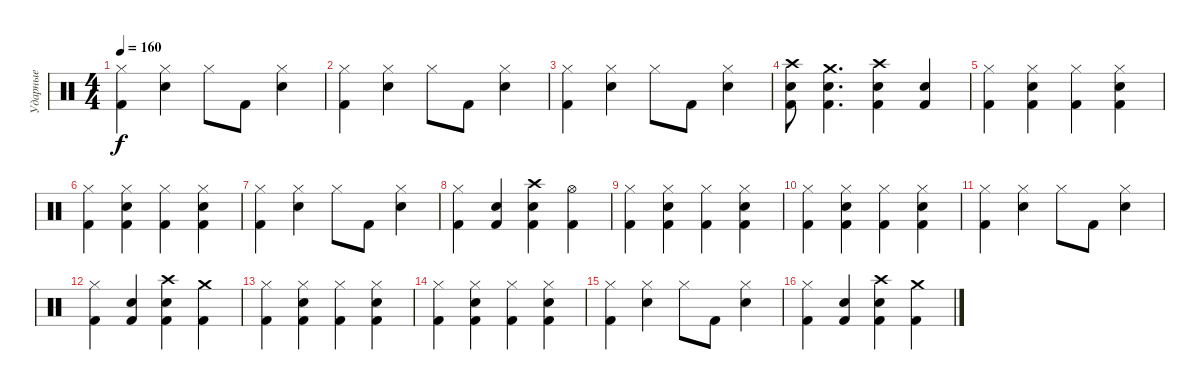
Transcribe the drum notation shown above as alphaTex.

\track ("Ударные" "Ударные") {instrument percussion}
\staff {score}
\articulation defaults
\ts (4 4)
\tempo 160
\clef neutral
\ks c
("Hi-Hat (closed)" "Kick (hit) 2").4{dy f} ("Hi-Hat (closed)" "Snare (hit) 2").4 "Hi-Hat (closed)".8 "Kick (hit) 2".8 ("Hi-Hat (closed)" "Snare (hit) 2").4 |
("Hi-Hat (closed)" "Kick (hit) 2").4 ("Hi-Hat (closed)" "Snare (hit) 2").4 "Hi-Hat (closed)".8 "Kick (hit) 2".8 ("Hi-Hat (closed)" "Snare (hit) 2").4 |
("Hi-Hat (closed)" "Kick (hit) 2").4 ("Hi-Hat (closed)" "Snare (hit) 2").4 "Hi-Hat (closed)".8 "Kick (hit) 2".8 ("Hi-Hat (closed)" "Snare (hit) 2").4 |
("Crash high (hit)" "Snare (hit) 2" "Kick (hit) 2").8 ("Crash medium (hit)" "Snare (hit) 2" "Kick (hit) 2").4{d} ("Crash high (hit)" "Snare (hit) 2" "Kick (hit) 2").4 ("Snare (hit) 2" "Kick (hit) 2").4 |
("Hi-Hat (closed)" "Kick (hit) 2").4 ("Hi-Hat (closed)" "Snare (hit) 2" "Kick (hit) 2").4 ("Hi-Hat (closed)" "Kick (hit) 2").4 ("Hi-Hat (closed)" "Snare (hit) 2" "Kick (hit) 2").4 |
("Hi-Hat (closed)" "Kick (hit) 2").4 ("Hi-Hat (closed)" "Snare (hit) 2" "Kick (hit) 2").4 ("Hi-Hat (closed)" "Kick (hit) 2").4 ("Hi-Hat (closed)" "Snare (hit) 2" "Kick (hit) 2").4 |
("Hi-Hat (closed)" "Kick (hit) 2").4 ("Hi-Hat (closed)" "Snare (hit) 2").4 "Hi-Hat (closed)".8 "Kick (hit) 2".8 ("Hi-Hat (closed)" "Snare (hit) 2").4 |
("Hi-Hat (closed)" "Kick (hit) 2").4 ("Snare (hit) 2" "Kick (hit) 2").4 ("Crash high (hit)" "Snare (hit) 2" "Kick (hit) 2").4 ("Hi-Hat (open)" "Kick (hit) 2").4 |
("Hi-Hat (closed)" "Kick (hit) 2").4 ("Hi-Hat (closed)" "Snare (hit) 2" "Kick (hit) 2").4 ("Hi-Hat (closed)" "Kick (hit) 2").4 ("Hi-Hat (closed)" "Snare (hit) 2" "Kick (hit) 2").4 |
("Hi-Hat (closed)" "Kick (hit) 2").4 ("Hi-Hat (closed)" "Snare (hit) 2" "Kick (hit) 2").4 ("Hi-Hat (closed)" "Kick (hit) 2").4 ("Hi-Hat (closed)" "Snare (hit) 2" "Kick (hit) 2").4 |
("Hi-Hat (closed)" "Kick (hit) 2").4 ("Hi-Hat (closed)" "Snare (hit) 2").4 "Hi-Hat (closed)".8 "Kick (hit) 2".8 ("Hi-Hat (closed)" "Snare (hit) 2").4 |
("Hi-Hat (closed)" "Kick (hit) 2").4 ("Snare (hit) 2" "Kick (hit) 2").4 ("Crash high (hit)" "Snare (hit) 2" "Kick (hit) 2").4 ("Crash medium (hit)" "Kick (hit) 2").4 |
("Hi-Hat (closed)" "Kick (hit) 2").4 ("Hi-Hat (closed)" "Snare (hit) 2" "Kick (hit) 2").4 ("Hi-Hat (closed)" "Kick (hit) 2").4 ("Hi-Hat (closed)" "Snare (hit) 2" "Kick (hit) 2").4 |
("Hi-Hat (closed)" "Kick (hit) 2").4 ("Hi-Hat (closed)" "Snare (hit) 2" "Kick (hit) 2").4 ("Hi-Hat (closed)" "Kick (hit) 2").4 ("Hi-Hat (closed)" "Snare (hit) 2" "Kick (hit) 2").4 |
("Hi-Hat (closed)" "Kick (hit) 2").4 ("Hi-Hat (closed)" "Snare (hit) 2").4 "Hi-Hat (closed)".8 "Kick (hit) 2".8 ("Hi-Hat (closed)" "Snare (hit) 2").4 |
("Hi-Hat (closed)" "Kick (hit) 2").4 ("Snare (hit) 2" "Kick (hit) 2").4 ("Crash high (hit)" "Snare (hit) 2" "Kick (hit) 2").4 ("Crash medium (hit)" "Kick (hit) 2").4
